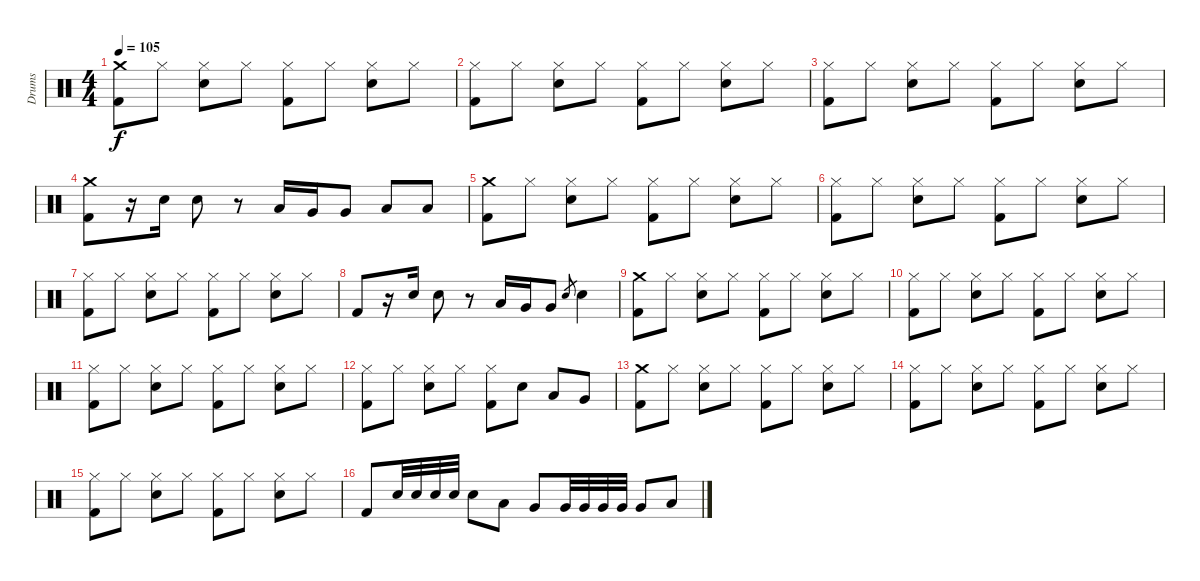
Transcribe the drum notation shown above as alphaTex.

\track ("Drums" "Drums") {instrument percussion}
\staff {score}
\articulation defaults
\ts (4 4)
\tempo 105
\clef neutral
\ks c
("Crash medium (hit)" "Kick (hit) 2").8{dy f} "Hi-Hat (closed)".8 ("Hi-Hat (closed)" "Snare (hit) 2").8 "Hi-Hat (closed)".8 ("Hi-Hat (closed)" "Kick (hit) 2").8 "Hi-Hat (closed)".8 ("Hi-Hat (closed)" "Snare (hit) 2").8 "Hi-Hat (closed)".8 |
("Hi-Hat (closed)" "Kick (hit) 2").8 "Hi-Hat (closed)".8 ("Hi-Hat (closed)" "Snare (hit) 2").8 "Hi-Hat (closed)".8 ("Hi-Hat (closed)" "Kick (hit) 2").8 "Hi-Hat (closed)".8 ("Hi-Hat (closed)" "Snare (hit) 2").8 "Hi-Hat (closed)".8 |
("Hi-Hat (closed)" "Kick (hit) 2").8 "Hi-Hat (closed)".8 ("Hi-Hat (closed)" "Snare (hit) 2").8 "Hi-Hat (closed)".8 ("Hi-Hat (closed)" "Kick (hit) 2").8 "Hi-Hat (closed)".8 ("Hi-Hat (closed)" "Snare (hit) 2").8 "Hi-Hat (closed)".8 |
("Crash medium (hit)" "Kick (hit) 2").8 r.16 "Snare (hit) 2".16 "Snare (hit) 2".8 r.8 "Low Tom (hit)".16 "Very Low Tom (hit)".16 "Very Low Tom (hit)".8 "Low Floor Tom (hit)".8 "Low Floor Tom (hit)".8 |
("Crash medium (hit)" "Kick (hit) 2").8 "Hi-Hat (closed)".8 ("Hi-Hat (closed)" "Snare (hit) 2").8 "Hi-Hat (closed)".8 ("Hi-Hat (closed)" "Kick (hit) 2").8 "Hi-Hat (closed)".8 ("Hi-Hat (closed)" "Snare (hit) 2").8 "Hi-Hat (closed)".8 |
("Hi-Hat (closed)" "Kick (hit) 2").8 "Hi-Hat (closed)".8 ("Hi-Hat (closed)" "Snare (hit) 2").8 "Hi-Hat (closed)".8 ("Hi-Hat (closed)" "Kick (hit) 2").8 "Hi-Hat (closed)".8 ("Hi-Hat (closed)" "Snare (hit) 2").8 "Hi-Hat (closed)".8 |
("Hi-Hat (closed)" "Kick (hit) 2").8 "Hi-Hat (closed)".8 ("Hi-Hat (closed)" "Snare (hit) 2").8 "Hi-Hat (closed)".8 ("Hi-Hat (closed)" "Kick (hit) 2").8 "Hi-Hat (closed)".8 ("Hi-Hat (closed)" "Snare (hit) 2").8 "Hi-Hat (closed)".8 |
"Kick (hit) 2".8 r.16 "Snare (hit) 2".16 "Snare (hit) 2".8 r.8 "Low Floor Tom (hit)".16 "Very Low Tom (hit)".16 "Very Low Tom (hit)".8 "Snare (hit) 2".8{gr} "Snare (hit) 2".4 |
("Crash medium (hit)" "Kick (hit) 2").8 "Hi-Hat (closed)".8 ("Hi-Hat (closed)" "Snare (hit) 2").8 "Hi-Hat (closed)".8 ("Hi-Hat (closed)" "Kick (hit) 2").8 "Hi-Hat (closed)".8 ("Hi-Hat (closed)" "Snare (hit) 2").8 "Hi-Hat (closed)".8 |
("Hi-Hat (closed)" "Kick (hit) 2").8 "Hi-Hat (closed)".8 ("Hi-Hat (closed)" "Snare (hit) 2").8 "Hi-Hat (closed)".8 ("Hi-Hat (closed)" "Kick (hit) 2").8 "Hi-Hat (closed)".8 ("Hi-Hat (closed)" "Snare (hit) 2").8 "Hi-Hat (closed)".8 |
("Hi-Hat (closed)" "Kick (hit) 2").8 "Hi-Hat (closed)".8 ("Hi-Hat (closed)" "Snare (hit) 2").8 "Hi-Hat (closed)".8 ("Hi-Hat (closed)" "Kick (hit) 2").8 "Hi-Hat (closed)".8 ("Hi-Hat (closed)" "Snare (hit) 2").8 "Hi-Hat (closed)".8 |
("Hi-Hat (closed)" "Kick (hit) 2").8 "Hi-Hat (closed)".8 ("Hi-Hat (closed)" "Snare (hit) 2").8 "Hi-Hat (closed)".8 ("Hi-Hat (closed)" "Kick (hit) 2").8 "Snare (hit) 2".8 "Low Tom (hit)".8 "Very Low Tom (hit)".8 |
("Crash medium (hit)" "Kick (hit) 2").8 "Hi-Hat (closed)".8 ("Hi-Hat (closed)" "Snare (hit) 2").8 "Hi-Hat (closed)".8 ("Hi-Hat (closed)" "Kick (hit) 2").8 "Hi-Hat (closed)".8 ("Hi-Hat (closed)" "Snare (hit) 2").8 "Hi-Hat (closed)".8 |
("Hi-Hat (closed)" "Kick (hit) 2").8 "Hi-Hat (closed)".8 ("Hi-Hat (closed)" "Snare (hit) 2").8 "Hi-Hat (closed)".8 ("Hi-Hat (closed)" "Kick (hit) 2").8 "Hi-Hat (closed)".8 ("Hi-Hat (closed)" "Snare (hit) 2").8 "Hi-Hat (closed)".8 |
("Hi-Hat (closed)" "Kick (hit) 2").8 "Hi-Hat (closed)".8 ("Hi-Hat (closed)" "Snare (hit) 2").8 "Hi-Hat (closed)".8 ("Hi-Hat (closed)" "Kick (hit) 2").8 "Hi-Hat (closed)".8 ("Hi-Hat (closed)" "Snare (hit) 2").8 "Hi-Hat (closed)".8 |
"Kick (hit) 2".8 "Snare (hit) 2".32 "Snare (hit) 2".32 "Snare (hit) 2".32 "Snare (hit) 2".32 "Snare (hit) 2".8 "Low Tom (hit)".8 "Very Low Tom (hit)".8 "Very Low Tom (hit)".32 "Very Low Tom (hit)".32 "Very Low Tom (hit)".32 "Very Low Tom (hit)".32 "Very Low Tom (hit)".8 "Low Floor Tom (hit)".8
